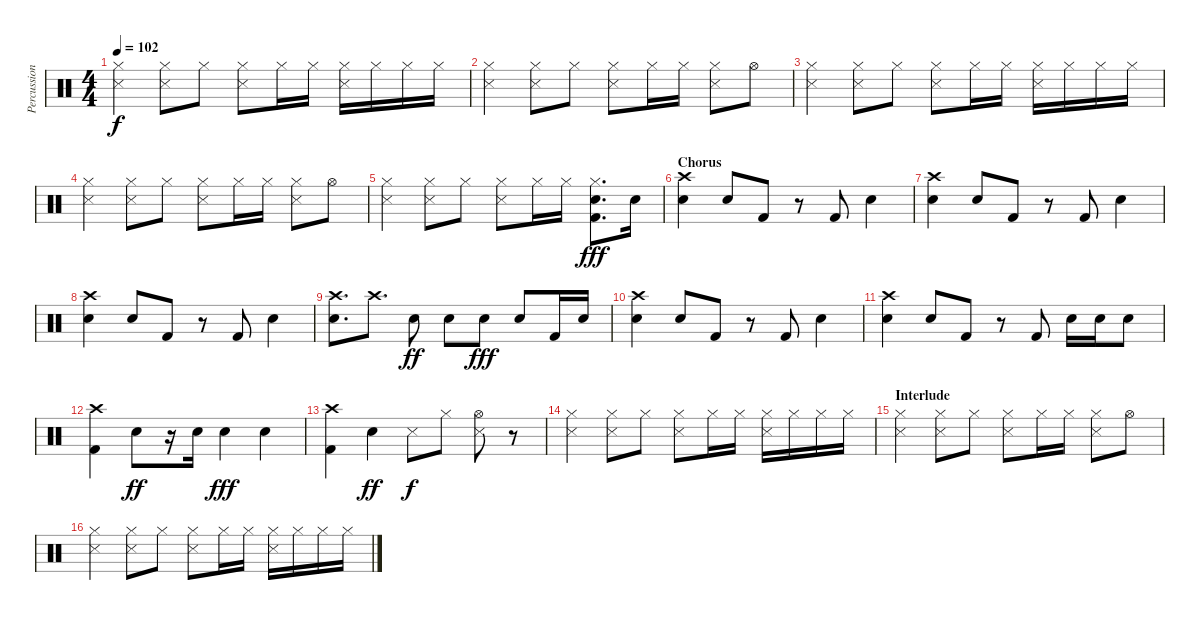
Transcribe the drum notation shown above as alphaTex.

\track ("Percussion" "Percussion") {instrument percussion}
\staff {score}
\articulation defaults
\ts (4 4)
\tempo 102
\clef neutral
\ks c
("Snare (side stick) 3" "Hi-Hat (closed)").4{dy f} ("Snare (side stick) 3" "Hi-Hat (closed)").8 "Hi-Hat (closed)".8 ("Snare (side stick) 3" "Hi-Hat (closed)").8 "Hi-Hat (closed)".16 "Hi-Hat (closed)".16 ("Snare (side stick) 3" "Hi-Hat (closed)").16 "Hi-Hat (closed)".16 "Hi-Hat (closed)".16 "Hi-Hat (closed)".16 |
("Snare (side stick) 3" "Hi-Hat (closed)").4 ("Snare (side stick) 3" "Hi-Hat (closed)").8 "Hi-Hat (closed)".8 ("Snare (side stick) 3" "Hi-Hat (closed)").8 "Hi-Hat (closed)".16 "Hi-Hat (closed)".16 ("Snare (side stick) 3" "Hi-Hat (closed)").8 "Hi-Hat (open)".8 |
("Snare (side stick) 3" "Hi-Hat (closed)").4 ("Snare (side stick) 3" "Hi-Hat (closed)").8 "Hi-Hat (closed)".8 ("Snare (side stick) 3" "Hi-Hat (closed)").8 "Hi-Hat (closed)".16 "Hi-Hat (closed)".16 ("Snare (side stick) 3" "Hi-Hat (closed)").16 "Hi-Hat (closed)".16 "Hi-Hat (closed)".16 "Hi-Hat (closed)".16 |
("Snare (side stick) 3" "Hi-Hat (closed)").4 ("Snare (side stick) 3" "Hi-Hat (closed)").8 "Hi-Hat (closed)".8 ("Snare (side stick) 3" "Hi-Hat (closed)").8 "Hi-Hat (closed)".16 "Hi-Hat (closed)".16 ("Snare (side stick) 3" "Hi-Hat (closed)").8 "Hi-Hat (open)".8 |
("Snare (side stick) 3" "Hi-Hat (closed)").4 ("Snare (side stick) 3" "Hi-Hat (closed)").8 "Hi-Hat (closed)".8 ("Snare (side stick) 3" "Hi-Hat (closed)").8 "Hi-Hat (closed)".16 "Hi-Hat (closed)".16 ("Snare (hit) 2" "Hi-Hat (closed)" "Kick (hit) 2").8{d dy fff} "Snare (hit) 2".16 |
\section ("" "Chorus")
("Crash high (hit)" "Snare (hit) 2").4 "Snare (hit) 2".8 "Kick (hit) 2".8 r.8 "Kick (hit) 2".8 "Snare (hit) 2".4 |
("Crash high (hit)" "Snare (hit) 2").4 "Snare (hit) 2".8 "Kick (hit) 2".8 r.8 "Kick (hit) 2".8 "Snare (hit) 2".4 |
("Crash high (hit)" "Snare (hit) 2").4 "Snare (hit) 2".8 "Kick (hit) 2".8 r.8 "Kick (hit) 2".8 "Snare (hit) 2".4 |
("Crash high (hit)" "Snare (hit) 2").8{d} "Crash high (hit)".8{d} "Snare (hit) 2".8{dy ff} "Snare (hit) 2".8 "Snare (hit) 2".8{dy fff} "Snare (hit) 2".8 "Kick (hit) 2".16 "Snare (hit) 2".16 |
("Crash high (hit)" "Snare (hit) 2").4 "Snare (hit) 2".8 "Kick (hit) 2".8 r.8 "Kick (hit) 2".8 "Snare (hit) 2".4 |
("Crash high (hit)" "Snare (hit) 2").4 "Snare (hit) 2".8 "Kick (hit) 2".8 r.8 "Kick (hit) 2".8 "Snare (hit) 2".16 "Snare (hit) 2".16 "Snare (hit) 2".8 |
("Crash high (hit)" "Kick (hit) 2").4 "Snare (hit) 2".8{dy ff} r.16 "Snare (hit) 2".16 "Snare (hit) 2".4{dy fff} "Snare (hit) 2".4 |
("Crash high (hit)" "Kick (hit) 2").4 "Snare (hit) 2".4{dy ff} "Snare (side stick) 3".8{dy f} "Hi-Hat (closed)".8 ("Snare (side stick) 3" "Hi-Hat (open)").8 r.8 |
("Snare (side stick) 3" "Hi-Hat (closed)").4 ("Snare (side stick) 3" "Hi-Hat (closed)").8 "Hi-Hat (closed)".8 ("Snare (side stick) 3" "Hi-Hat (closed)").8 "Hi-Hat (closed)".16 "Hi-Hat (closed)".16 ("Snare (side stick) 3" "Hi-Hat (closed)").16 "Hi-Hat (closed)".16 "Hi-Hat (closed)".16 "Hi-Hat (closed)".16 |
\section ("" "Interlude")
("Snare (side stick) 3" "Hi-Hat (closed)").4 ("Snare (side stick) 3" "Hi-Hat (closed)").8 "Hi-Hat (closed)".8 ("Snare (side stick) 3" "Hi-Hat (closed)").8 "Hi-Hat (closed)".16 "Hi-Hat (closed)".16 ("Snare (side stick) 3" "Hi-Hat (closed)").8 "Hi-Hat (open)".8 |
("Snare (side stick) 3" "Hi-Hat (closed)").4 ("Snare (side stick) 3" "Hi-Hat (closed)").8 "Hi-Hat (closed)".8 ("Snare (side stick) 3" "Hi-Hat (closed)").8 "Hi-Hat (closed)".16 "Hi-Hat (closed)".16 ("Snare (side stick) 3" "Hi-Hat (closed)").16 "Hi-Hat (closed)".16 "Hi-Hat (closed)".16 "Hi-Hat (closed)".16
